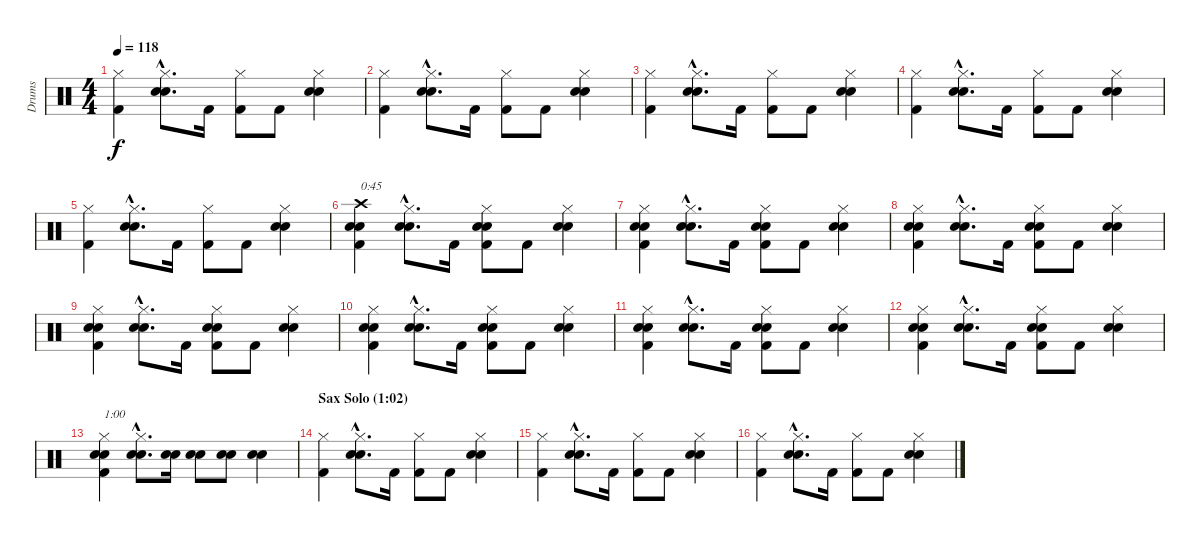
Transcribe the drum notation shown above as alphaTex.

\track ("Drums" "Drums") {instrument percussion}
\staff {score}
\articulation defaults
\ts (4 4)
\tempo 118
\clef neutral
\ks c
("Hi-Hat (closed)" "Kick (hit) 2").4{dy f} ("Hi-Hat (closed)"{hac} "Electric Snare (hit)"{hac} "Snare (hit) 2"{hac}).8{d} "Kick (hit) 2".16 ("Hi-Hat (closed)" "Kick (hit) 2").8 "Kick (hit) 2".8 ("Hi-Hat (closed)" "Electric Snare (hit)" "Snare (hit) 2").4 |
("Hi-Hat (closed)" "Kick (hit) 2").4 ("Hi-Hat (closed)"{hac} "Electric Snare (hit)"{hac} "Snare (hit) 2"{hac}).8{d} "Kick (hit) 2".16 ("Hi-Hat (closed)" "Kick (hit) 2").8 "Kick (hit) 2".8 ("Hi-Hat (closed)" "Electric Snare (hit)" "Snare (hit) 2").4 |
("Hi-Hat (closed)" "Kick (hit) 2").4 ("Hi-Hat (closed)"{hac} "Electric Snare (hit)"{hac} "Snare (hit) 2"{hac}).8{d} "Kick (hit) 2".16 ("Hi-Hat (closed)" "Kick (hit) 2").8 "Kick (hit) 2".8 ("Hi-Hat (closed)" "Electric Snare (hit)" "Snare (hit) 2").4 |
("Hi-Hat (closed)" "Kick (hit) 2").4 ("Hi-Hat (closed)"{hac} "Electric Snare (hit)"{hac} "Snare (hit) 2"{hac}).8{d} "Kick (hit) 2".16 ("Hi-Hat (closed)" "Kick (hit) 2").8 "Kick (hit) 2".8 ("Hi-Hat (closed)" "Electric Snare (hit)" "Snare (hit) 2").4 |
("Hi-Hat (closed)" "Kick (hit) 2").4 ("Hi-Hat (closed)"{hac} "Electric Snare (hit)"{hac} "Snare (hit) 2"{hac}).8{d} "Kick (hit) 2".16 ("Hi-Hat (closed)" "Kick (hit) 2").8 "Kick (hit) 2".8 ("Hi-Hat (closed)" "Electric Snare (hit)" "Snare (hit) 2").4 |
("Crash high (hit)" "Electric Snare (hit)" "Snare (hit) 2" "Kick (hit) 2").4{txt "0:45"} ("Hi-Hat (closed)"{hac} "Electric Snare (hit)"{hac} "Snare (hit) 2"{hac}).8{d} "Kick (hit) 2".16 ("Hi-Hat (closed)" "Electric Snare (hit)" "Snare (hit) 2" "Kick (hit) 2").8 "Kick (hit) 2".8 ("Hi-Hat (closed)" "Electric Snare (hit)" "Snare (hit) 2").4 |
("Hi-Hat (closed)" "Electric Snare (hit)" "Snare (hit) 2" "Kick (hit) 2").4 ("Hi-Hat (closed)"{hac} "Electric Snare (hit)"{hac} "Snare (hit) 2"{hac}).8{d} "Kick (hit) 2".16 ("Hi-Hat (closed)" "Electric Snare (hit)" "Snare (hit) 2" "Kick (hit) 2").8 "Kick (hit) 2".8 ("Hi-Hat (closed)" "Electric Snare (hit)" "Snare (hit) 2").4 |
("Hi-Hat (closed)" "Electric Snare (hit)" "Snare (hit) 2" "Kick (hit) 2").4 ("Hi-Hat (closed)"{hac} "Electric Snare (hit)"{hac} "Snare (hit) 2"{hac}).8{d} "Kick (hit) 2".16 ("Hi-Hat (closed)" "Electric Snare (hit)" "Snare (hit) 2" "Kick (hit) 2").8 "Kick (hit) 2".8 ("Hi-Hat (closed)" "Electric Snare (hit)" "Snare (hit) 2").4 |
("Hi-Hat (closed)" "Electric Snare (hit)" "Snare (hit) 2" "Kick (hit) 2").4 ("Hi-Hat (closed)"{hac} "Electric Snare (hit)"{hac} "Snare (hit) 2"{hac}).8{d} "Kick (hit) 2".16 ("Hi-Hat (closed)" "Electric Snare (hit)" "Snare (hit) 2" "Kick (hit) 2").8 "Kick (hit) 2".8 ("Hi-Hat (closed)" "Electric Snare (hit)" "Snare (hit) 2").4 |
("Hi-Hat (closed)" "Electric Snare (hit)" "Snare (hit) 2" "Kick (hit) 2").4 ("Hi-Hat (closed)"{hac} "Electric Snare (hit)"{hac} "Snare (hit) 2"{hac}).8{d} "Kick (hit) 2".16 ("Hi-Hat (closed)" "Electric Snare (hit)" "Snare (hit) 2" "Kick (hit) 2").8 "Kick (hit) 2".8 ("Hi-Hat (closed)" "Electric Snare (hit)" "Snare (hit) 2").4 |
("Hi-Hat (closed)" "Electric Snare (hit)" "Snare (hit) 2" "Kick (hit) 2").4 ("Hi-Hat (closed)"{hac} "Electric Snare (hit)"{hac} "Snare (hit) 2"{hac}).8{d} "Kick (hit) 2".16 ("Hi-Hat (closed)" "Electric Snare (hit)" "Snare (hit) 2" "Kick (hit) 2").8 "Kick (hit) 2".8 ("Hi-Hat (closed)" "Electric Snare (hit)" "Snare (hit) 2").4 |
("Hi-Hat (closed)" "Electric Snare (hit)" "Snare (hit) 2" "Kick (hit) 2").4 ("Hi-Hat (closed)"{hac} "Electric Snare (hit)"{hac} "Snare (hit) 2"{hac}).8{d} "Kick (hit) 2".16 ("Hi-Hat (closed)" "Electric Snare (hit)" "Snare (hit) 2" "Kick (hit) 2").8 "Kick (hit) 2".8 ("Hi-Hat (closed)" "Electric Snare (hit)" "Snare (hit) 2").4 |
("Hi-Hat (closed)" "Electric Snare (hit)" "Snare (hit) 2" "Kick (hit) 2").4{txt "1:00"} ("Hi-Hat (closed)"{hac} "Electric Snare (hit)"{hac} "Snare (hit) 2"{hac}).8{d} ("Electric Snare (hit)" "Snare (hit) 2").16 ("Electric Snare (hit)" "Snare (hit) 2").8 ("Electric Snare (hit)" "Snare (hit) 2").8 ("Electric Snare (hit)" "Snare (hit) 2").4 |
\section ("" "Sax Solo (1:02)")
("Hi-Hat (closed)" "Kick (hit) 2").4 ("Hi-Hat (closed)"{hac} "Electric Snare (hit)"{hac} "Snare (hit) 2"{hac}).8{d} "Kick (hit) 2".16 ("Hi-Hat (closed)" "Kick (hit) 2").8 "Kick (hit) 2".8 ("Hi-Hat (closed)" "Electric Snare (hit)" "Snare (hit) 2").4 |
("Hi-Hat (closed)" "Kick (hit) 2").4 ("Hi-Hat (closed)"{hac} "Electric Snare (hit)"{hac} "Snare (hit) 2"{hac}).8{d} "Kick (hit) 2".16 ("Hi-Hat (closed)" "Kick (hit) 2").8 "Kick (hit) 2".8 ("Hi-Hat (closed)" "Electric Snare (hit)" "Snare (hit) 2").4 |
("Hi-Hat (closed)" "Kick (hit) 2").4 ("Hi-Hat (closed)"{hac} "Electric Snare (hit)"{hac} "Snare (hit) 2"{hac}).8{d} "Kick (hit) 2".16 ("Hi-Hat (closed)" "Kick (hit) 2").8 "Kick (hit) 2".8 ("Hi-Hat (closed)" "Electric Snare (hit)" "Snare (hit) 2").4
